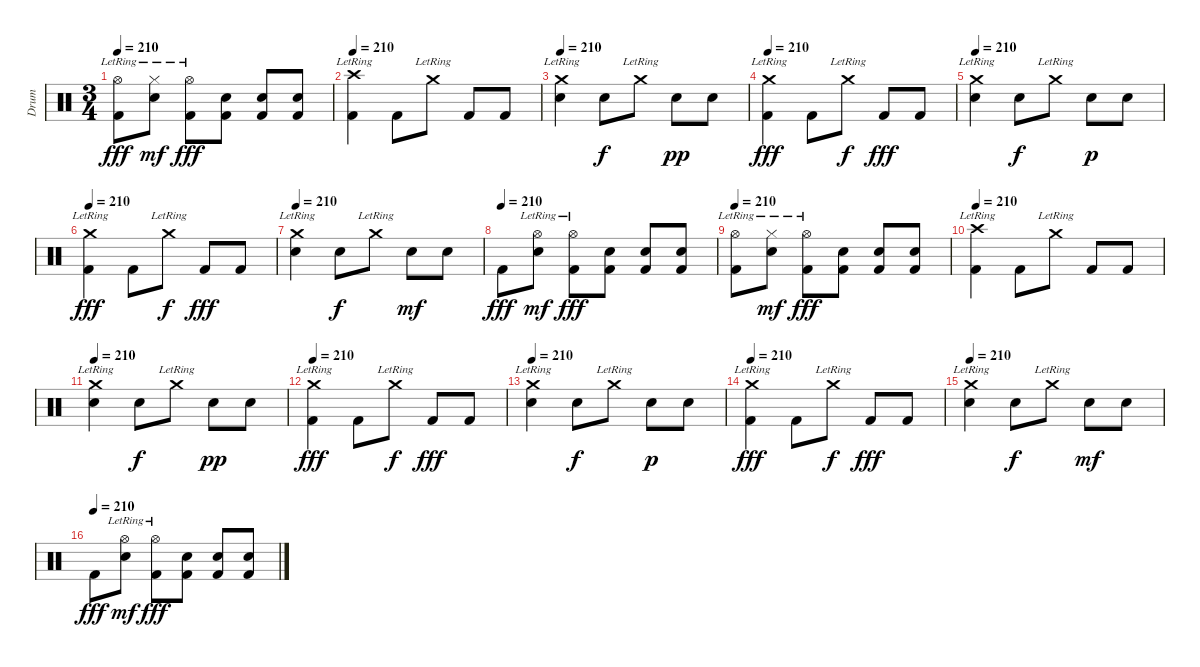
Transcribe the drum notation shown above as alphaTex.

\track ("Drum" "Drum") {instrument percussion}
\staff {score}
\articulation defaults
\ts (3 4)
\tempo 210
\clef neutral
\ks c
("Hi-Hat (open)"{lr} "Kick (hit) 2").8{dy fff} ("Hi-Hat (closed)"{lr} "Electric Snare (hit)").8{dy mf} ("Hi-Hat (open)"{lr} "Kick (hit) 2").8{dy fff} ("Electric Snare (hit)" "Kick (hit) 2").8 ("Electric Snare (hit)" "Kick (hit) 2").8 ("Electric Snare (hit)" "Kick (hit) 2").8 |
\tempo 210
("Crash high (hit)"{lr} "Kick (hit) 2").4 "Kick (hit) 2".8 "Crash medium (hit)"{lr}.8 "Kick (hit) 2".8 "Kick (hit) 2".8 |
\tempo 210
("Crash medium (hit)"{lr} "Electric Snare (hit)").4 "Electric Snare (hit)".8{dy f} "Crash medium (hit)"{lr}.8 "Electric Snare (hit)".8{dy pp} "Electric Snare (hit)".8 |
\tempo 210
("Crash medium (hit)"{lr} "Kick (hit) 2").4{dy fff} "Kick (hit) 2".8 "Crash medium (hit)"{lr}.8{dy f} "Kick (hit) 2".8{dy fff} "Kick (hit) 2".8 |
\tempo 210
("Crash medium (hit)"{lr} "Electric Snare (hit)").4 "Electric Snare (hit)".8{dy f} "Crash medium (hit)"{lr}.8 "Electric Snare (hit)".8{dy p} "Electric Snare (hit)".8 |
\tempo 210
("Crash medium (hit)"{lr} "Kick (hit) 2").4{dy fff} "Kick (hit) 2".8 "Crash medium (hit)"{lr}.8{dy f} "Kick (hit) 2".8{dy fff} "Kick (hit) 2".8 |
\tempo 210
("Crash medium (hit)"{lr} "Electric Snare (hit)").4 "Electric Snare (hit)".8{dy f} "Crash medium (hit)"{lr}.8 "Electric Snare (hit)".8{dy mf} "Electric Snare (hit)".8 |
\tempo (210)
"Kick (hit) 2".8{dy fff} ("Hi-Hat (open)"{lr} "Electric Snare (hit)").8{dy mf} ("Hi-Hat (open)"{lr} "Kick (hit) 2").8{dy fff} ("Electric Snare (hit)" "Kick (hit) 2").8 ("Electric Snare (hit)" "Kick (hit) 2").8 ("Electric Snare (hit)" "Kick (hit) 2").8 |
\tempo 210
("Hi-Hat (open)"{lr} "Kick (hit) 2").8 ("Hi-Hat (closed)"{lr} "Electric Snare (hit)").8{dy mf} ("Hi-Hat (open)"{lr} "Kick (hit) 2").8{dy fff} ("Electric Snare (hit)" "Kick (hit) 2").8 ("Electric Snare (hit)" "Kick (hit) 2").8 ("Electric Snare (hit)" "Kick (hit) 2").8 |
\tempo 210
("Crash high (hit)"{lr} "Kick (hit) 2").4 "Kick (hit) 2".8 "Crash medium (hit)"{lr}.8 "Kick (hit) 2".8 "Kick (hit) 2".8 |
\tempo 210
("Crash medium (hit)"{lr} "Electric Snare (hit)").4 "Electric Snare (hit)".8{dy f} "Crash medium (hit)"{lr}.8 "Electric Snare (hit)".8{dy pp} "Electric Snare (hit)".8 |
\tempo 210
("Crash medium (hit)"{lr} "Kick (hit) 2").4{dy fff} "Kick (hit) 2".8 "Crash medium (hit)"{lr}.8{dy f} "Kick (hit) 2".8{dy fff} "Kick (hit) 2".8 |
\tempo 210
("Crash medium (hit)"{lr} "Electric Snare (hit)").4 "Electric Snare (hit)".8{dy f} "Crash medium (hit)"{lr}.8 "Electric Snare (hit)".8{dy p} "Electric Snare (hit)".8 |
\tempo 210
("Crash medium (hit)"{lr} "Kick (hit) 2").4{dy fff} "Kick (hit) 2".8 "Crash medium (hit)"{lr}.8{dy f} "Kick (hit) 2".8{dy fff} "Kick (hit) 2".8 |
\tempo 210
("Crash medium (hit)"{lr} "Electric Snare (hit)").4 "Electric Snare (hit)".8{dy f} "Crash medium (hit)"{lr}.8 "Electric Snare (hit)".8{dy mf} "Electric Snare (hit)".8 |
\tempo (210)
"Kick (hit) 2".8{dy fff} ("Hi-Hat (open)"{lr} "Electric Snare (hit)").8{dy mf} ("Hi-Hat (open)"{lr} "Kick (hit) 2").8{dy fff} ("Electric Snare (hit)" "Kick (hit) 2").8 ("Electric Snare (hit)" "Kick (hit) 2").8 ("Electric Snare (hit)" "Kick (hit) 2").8
